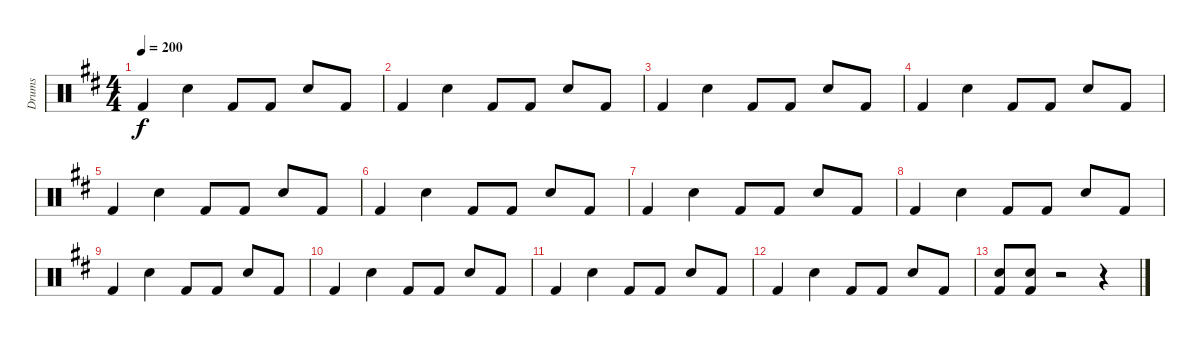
\track ("Drums" "Drums") {instrument percussion}
\staff {score}
\articulation defaults
\ts (4 4)
\tempo 200
\clef neutral
\ks d "Kick (hit) 2".4{dy f} "Electric Snare (hit)".4 "Kick (hit) 2".8 "Kick (hit) 2".8 "Electric Snare (hit)".8 "Kick (hit) 2".8
|
"Kick (hit) 2".4 "Electric Snare (hit)".4 "Kick (hit) 2".8 "Kick (hit) 2".8 "Electric Snare (hit)".8 "Kick (hit) 2".8 |
"Kick (hit) 2".4 "Electric Snare (hit)".4 "Kick (hit) 2".8 "Kick (hit) 2".8 "Electric Snare (hit)".8 "Kick (hit) 2".8 |
"Kick (hit) 2".4 "Electric Snare (hit)".4 "Kick (hit) 2".8 "Kick (hit) 2".8 "Electric Snare (hit)".8 "Kick (hit) 2".8 |
"Kick (hit) 2".4 "Electric Snare (hit)".4 "Kick (hit) 2".8 "Kick (hit) 2".8 "Electric Snare (hit)".8 "Kick (hit) 2".8 |
"Kick (hit) 2".4 "Electric Snare (hit)".4 "Kick (hit) 2".8 "Kick (hit) 2".8 "Electric Snare (hit)".8 "Kick (hit) 2".8 |
"Kick (hit) 2".4 "Electric Snare (hit)".4 "Kick (hit) 2".8 "Kick (hit) 2".8 "Electric Snare (hit)".8 "Kick (hit) 2".8 |
"Kick (hit) 2".4 "Electric Snare (hit)".4 "Kick (hit) 2".8 "Kick (hit) 2".8 "Electric Snare (hit)".8 "Kick (hit) 2".8 |
"Kick (hit) 2".4 "Electric Snare (hit)".4 "Kick (hit) 2".8 "Kick (hit) 2".8 "Electric Snare (hit)".8 "Kick (hit) 2".8 |
"Kick (hit) 2".4 "Electric Snare (hit)".4 "Kick (hit) 2".8 "Kick (hit) 2".8 "Electric Snare (hit)".8 "Kick (hit) 2".8 |
"Kick (hit) 2".4 "Electric Snare (hit)".4 "Kick (hit) 2".8 "Kick (hit) 2".8 "Electric Snare (hit)".8 "Kick (hit) 2".8 |
"Kick (hit) 2".4 "Electric Snare (hit)".4 "Kick (hit) 2".8 "Kick (hit) 2".8 "Electric Snare (hit)".8 "Kick (hit) 2".8 |
("Electric Snare (hit)" "Kick (hit) 2").8 ("Electric Snare (hit)" "Kick (hit) 2").8 r.2 r.4
